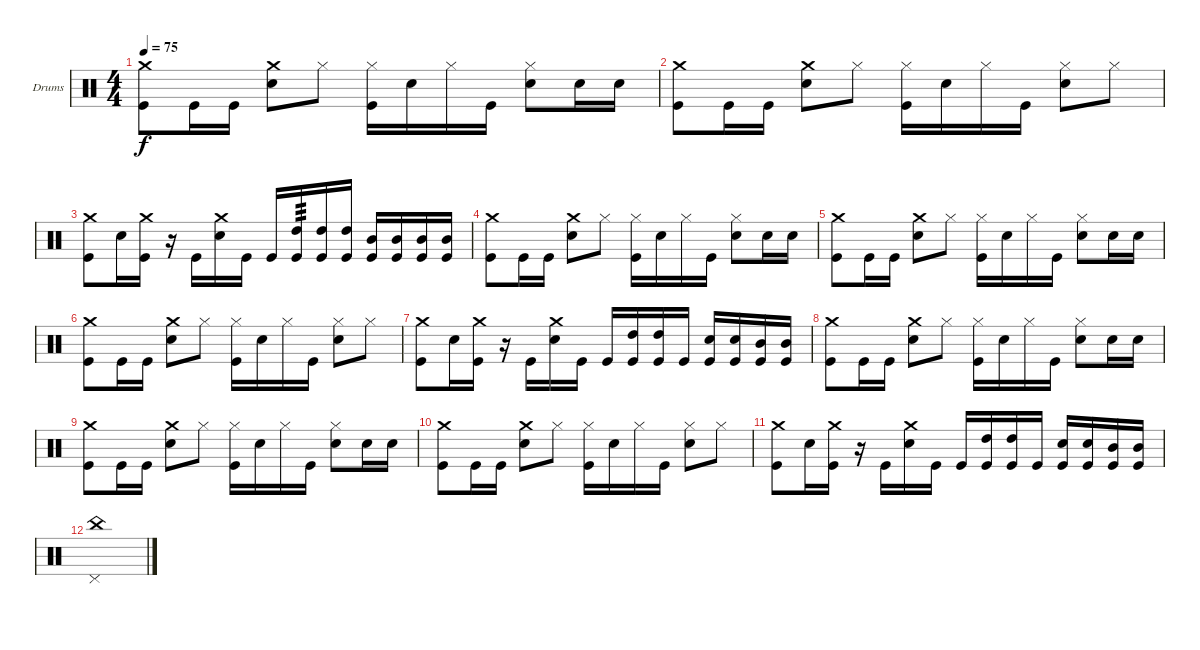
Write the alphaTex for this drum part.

\defaultSystemsLayout 4
\bracketExtendMode nobrackets
\firstSystemTrackNameOrientation horizontal
\otherSystemsTrackNameOrientation horizontal
\track ("Ударные" "Drums") {instrument percussion}
\staff {score}
\articulation defaults
\ts (4 4)
\tempo 75
\clef neutral
\ks c
("Crash medium (hit)" "Kick (hit)").8{dy f} "Kick (hit)".16 "Kick (hit)".16 ("Snare (hit) 2" "Crash medium (hit)").8 "Hi-Hat (closed)".8 ("Kick (hit)" "Hi-Hat (closed)").16 "Snare (hit) 2".16 "Hi-Hat (closed)".16 "Kick (hit)".16 ("Snare (hit) 2" "Hi-Hat (closed)").8 "Snare (hit) 2".16 "Snare (hit) 2".16 |
("Crash medium (hit)" "Kick (hit)").8 "Kick (hit)".16 "Kick (hit)".16 ("Snare (hit) 2" "Crash medium (hit)").8 "Hi-Hat (closed)".8 ("Kick (hit)" "Hi-Hat (closed)").16 "Snare (hit) 2".16 "Hi-Hat (closed)".16 "Kick (hit)".16 ("Snare (hit) 2" "Hi-Hat (closed)").8 "Hi-Hat (closed)".8 |
("Kick (hit)" "Crash medium (hit)").8 "Snare (hit) 2".16 ("Kick (hit)" "Crash medium (hit)").16 r.16 "Kick (hit)".16 ("Crash medium (hit)" "Snare (hit) 2").16 "Kick (hit)".16 "Kick (hit)".16 ("Kick (hit)" "High Tom (hit)").16{tp 3} ("High Tom (hit)" "Kick (hit)").16 ("Kick (hit)" "High Tom (hit)").16 ("Mid Tom (hit)" "Kick (hit)").16 ("Kick (hit)" "Mid Tom (hit)").16 ("Mid Tom (hit)" "Kick (hit)").16 ("Mid Tom (hit)" "Kick (hit)").16 |
("Crash medium (hit)" "Kick (hit)").8 "Kick (hit)".16 "Kick (hit)".16 ("Snare (hit) 2" "Crash medium (hit)").8 "Hi-Hat (closed)".8 ("Kick (hit)" "Hi-Hat (closed)").16 "Snare (hit) 2".16 "Hi-Hat (closed)".16 "Kick (hit)".16 ("Snare (hit) 2" "Hi-Hat (closed)").8 "Snare (hit) 2".16 "Snare (hit) 2".16 |
("Crash medium (hit)" "Kick (hit)").8 "Kick (hit)".16 "Kick (hit)".16 ("Snare (hit) 2" "Crash medium (hit)").8 "Hi-Hat (closed)".8 ("Kick (hit)" "Hi-Hat (closed)").16 "Snare (hit) 2".16 "Hi-Hat (closed)".16 "Kick (hit)".16 ("Snare (hit) 2" "Hi-Hat (closed)").8 "Snare (hit) 2".16 "Snare (hit) 2".16 |
("Crash medium (hit)" "Kick (hit)").8 "Kick (hit)".16 "Kick (hit)".16 ("Snare (hit) 2" "Crash medium (hit)").8 "Hi-Hat (closed)".8 ("Kick (hit)" "Hi-Hat (closed)").16 "Snare (hit) 2".16 "Hi-Hat (closed)".16 "Kick (hit)".16 ("Snare (hit) 2" "Hi-Hat (closed)").8 "Hi-Hat (closed)".8 |
("Kick (hit)" "Crash medium (hit)").8 "Snare (hit) 2".16 ("Kick (hit)" "Crash medium (hit)").16 r.16 "Kick (hit)".16 ("Crash medium (hit)" "Snare (hit) 2").16 "Kick (hit)".16 "Kick (hit)".16 ("High Tom (hit)" "Kick (hit)").16 ("High Tom (hit)" "Kick (hit)").16 "Kick (hit)".16 ("Snare (hit) 2" "Kick (hit)").16 ("Kick (hit)" "Snare (hit) 2").16 ("Mid Tom (hit)" "Kick (hit)").16 ("Mid Tom (hit)" "Kick (hit)").16 |
("Crash medium (hit)" "Kick (hit)").8 "Kick (hit)".16 "Kick (hit)".16 ("Snare (hit) 2" "Crash medium (hit)").8 "Hi-Hat (closed)".8 ("Kick (hit)" "Hi-Hat (closed)").16 "Snare (hit) 2".16 "Hi-Hat (closed)".16 "Kick (hit)".16 ("Snare (hit) 2" "Hi-Hat (closed)").8 "Snare (hit) 2".16 "Snare (hit) 2".16 |
("Crash medium (hit)" "Kick (hit)").8 "Kick (hit)".16 "Kick (hit)".16 ("Snare (hit) 2" "Crash medium (hit)").8 "Hi-Hat (closed)".8 ("Kick (hit)" "Hi-Hat (closed)").16 "Snare (hit) 2".16 "Hi-Hat (closed)".16 "Kick (hit)".16 ("Snare (hit) 2" "Hi-Hat (closed)").8 "Snare (hit) 2".16 "Snare (hit) 2".16 |
("Crash medium (hit)" "Kick (hit)").8 "Kick (hit)".16 "Kick (hit)".16 ("Snare (hit) 2" "Crash medium (hit)").8 "Hi-Hat (closed)".8 ("Kick (hit)" "Hi-Hat (closed)").16 "Snare (hit) 2".16 "Hi-Hat (closed)".16 "Kick (hit)".16 ("Snare (hit) 2" "Hi-Hat (closed)").8 "Hi-Hat (closed)".8 |
("Kick (hit)" "Crash medium (hit)").8 "Snare (hit) 2".16 ("Kick (hit)" "Crash medium (hit)").16 r.16 "Kick (hit)".16 ("Crash medium (hit)" "Snare (hit) 2").16 "Kick (hit)".16 "Kick (hit)".16 ("High Tom (hit)" "Kick (hit)").16 ("High Tom (hit)" "Kick (hit)").16 "Kick (hit)".16 ("Snare (hit) 2" "Kick (hit)").16 ("Kick (hit)" "Snare (hit) 2").16 ("Mid Tom (hit)" "Kick (hit)").16 ("Mid Tom (hit)" "Kick (hit)").16 |
("China (hit)" "Pedal Hi-Hat (hit)").1
